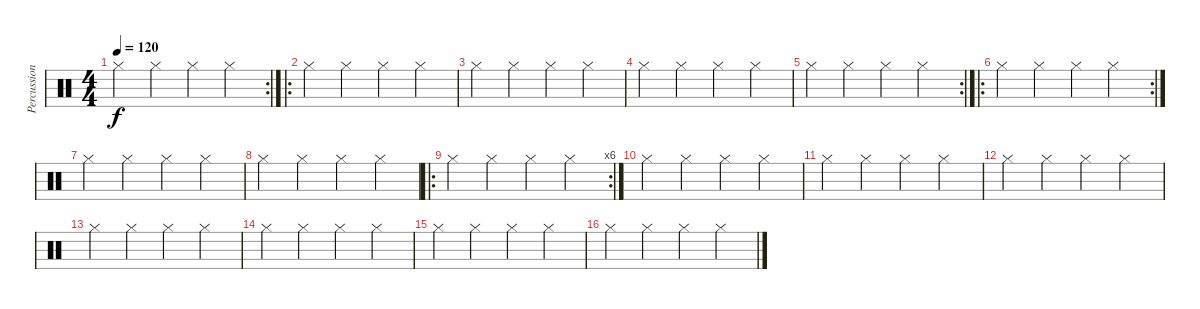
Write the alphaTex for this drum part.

\track ("Percussioni" "Percussion") {instrument percussion}
\staff {score}
\articulation defaults
\rc 2
\ts (4 4)
\tempo 120
\clef neutral
\ks c "Hi-Hat (closed)".4{dy f} "Hi-Hat (closed)".4 "Hi-Hat (closed)".4 "Hi-Hat (closed)".4
|
\ro "Hi-Hat (closed)".4 "Hi-Hat (closed)".4 "Hi-Hat (closed)".4 "Hi-Hat (closed)".4
|
"Hi-Hat (closed)".4 "Hi-Hat (closed)".4 "Hi-Hat (closed)".4 "Hi-Hat (closed)".4 |
"Hi-Hat (closed)".4 "Hi-Hat (closed)".4 "Hi-Hat (closed)".4 "Hi-Hat (closed)".4 |
\rc 2 "Hi-Hat (closed)".4 "Hi-Hat (closed)".4 "Hi-Hat (closed)".4 "Hi-Hat (closed)".4
|
\ro
\rc 2 "Hi-Hat (closed)".4 "Hi-Hat (closed)".4 "Hi-Hat (closed)".4 "Hi-Hat (closed)".4
|
"Hi-Hat (closed)".4 "Hi-Hat (closed)".4 "Hi-Hat (closed)".4 "Hi-Hat (closed)".4 |
"Hi-Hat (closed)".4 "Hi-Hat (closed)".4 "Hi-Hat (closed)".4 "Hi-Hat (closed)".4 |
\ro
\rc 6 "Hi-Hat (closed)".4 "Hi-Hat (closed)".4 "Hi-Hat (closed)".4 "Hi-Hat (closed)".4
|
"Hi-Hat (closed)".4 "Hi-Hat (closed)".4 "Hi-Hat (closed)".4 "Hi-Hat (closed)".4 |
"Hi-Hat (closed)".4 "Hi-Hat (closed)".4 "Hi-Hat (closed)".4 "Hi-Hat (closed)".4 |
"Hi-Hat (closed)".4 "Hi-Hat (closed)".4 "Hi-Hat (closed)".4 "Hi-Hat (closed)".4 |
"Hi-Hat (closed)".4 "Hi-Hat (closed)".4 "Hi-Hat (closed)".4 "Hi-Hat (closed)".4 |
"Hi-Hat (closed)".4 "Hi-Hat (closed)".4 "Hi-Hat (closed)".4 "Hi-Hat (closed)".4 |
"Hi-Hat (closed)".4 "Hi-Hat (closed)".4 "Hi-Hat (closed)".4 "Hi-Hat (closed)".4 |
"Hi-Hat (closed)".4 "Hi-Hat (closed)".4 "Hi-Hat (closed)".4 "Hi-Hat (closed)".4
